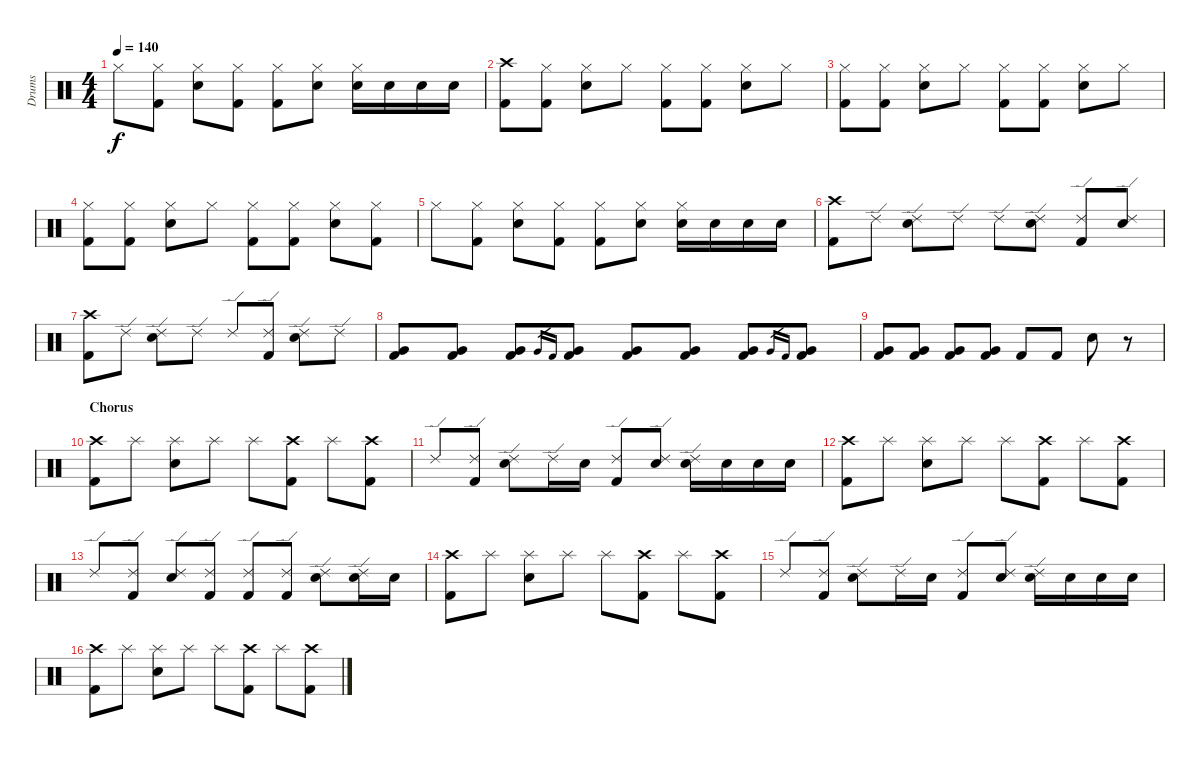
\track ("Drums" "Drums") {instrument percussion}
\staff {score}
\articulation defaults
\ts (4 4)
\tempo 140
\clef neutral
\ks c "Hi-Hat (closed)".8{dy f}
("Hi-Hat (closed)" "Kick (hit) 2").8 ("Hi-Hat (closed)" "Electric Snare (hit)").8 ("Hi-Hat (closed)" "Kick (hit) 2").8 ("Hi-Hat (closed)" "Kick (hit) 2").8 ("Hi-Hat (closed)" "Electric Snare (hit)").8 ("Hi-Hat (closed)" "Electric Snare (hit)").16 "Electric Snare (hit)".16 "Electric Snare (hit)".16 "Electric Snare (hit)".16 |
("Crash high (hit)" "Kick (hit) 2").8 ("Hi-Hat (closed)" "Kick (hit) 2").8 ("Hi-Hat (closed)" "Electric Snare (hit)").8 "Hi-Hat (closed)".8 ("Hi-Hat (closed)" "Kick (hit) 2").8 ("Hi-Hat (closed)" "Kick (hit) 2").8 ("Hi-Hat (closed)" "Electric Snare (hit)").8 "Hi-Hat (closed)".8 |
("Hi-Hat (closed)" "Kick (hit) 2").8 ("Hi-Hat (closed)" "Kick (hit) 2").8 ("Hi-Hat (closed)" "Electric Snare (hit)").8 "Hi-Hat (closed)".8 ("Hi-Hat (closed)" "Kick (hit) 2").8 ("Hi-Hat (closed)" "Kick (hit) 2").8 ("Hi-Hat (closed)" "Electric Snare (hit)").8 "Hi-Hat (closed)".8 |
("Hi-Hat (closed)" "Kick (hit) 2").8 ("Hi-Hat (closed)" "Kick (hit) 2").8 ("Hi-Hat (closed)" "Electric Snare (hit)").8 "Hi-Hat (closed)".8 ("Hi-Hat (closed)" "Kick (hit) 2").8 ("Hi-Hat (closed)" "Kick (hit) 2").8 ("Hi-Hat (closed)" "Electric Snare (hit)").8 ("Hi-Hat (closed)" "Kick (hit) 2").8 |
"Hi-Hat (closed)".8 ("Hi-Hat (closed)" "Kick (hit) 2").8 ("Hi-Hat (closed)" "Electric Snare (hit)").8 ("Hi-Hat (closed)" "Kick (hit) 2").8 ("Hi-Hat (closed)" "Kick (hit) 2").8 ("Hi-Hat (closed)" "Electric Snare (hit)").8 ("Hi-Hat (closed)" "Electric Snare (hit)").16 "Electric Snare (hit)".16 "Electric Snare (hit)".16 "Electric Snare (hit)".16 |
("Crash high (hit)" "Kick (hit) 2").8 "Ride (edge) 2".8 ("Ride (edge) 2" "Electric Snare (hit)").8 "Ride (edge) 2".8 "Ride (edge) 2".8 ("Ride (edge) 2" "Electric Snare (hit)").8 ("Ride (edge) 2" "Kick (hit) 2").8 ("Ride (edge) 2" "Electric Snare (hit)").8 |
("Crash high (hit)" "Kick (hit) 2").8 "Ride (edge) 2".8 ("Ride (edge) 2" "Electric Snare (hit)").8 "Ride (edge) 2".8 "Ride (edge) 2".8 ("Ride (edge) 2" "Kick (hit) 2").8 ("Ride (edge) 2" "Electric Snare (hit)").8 "Ride (edge) 2".8 |
("Very Low Tom (hit)" "Kick (hit) 2").8 ("Very Low Tom (hit)" "Kick (hit) 2").8 ("Very Low Tom (hit)" "Kick (hit) 2").8 "Very Low Tom (hit)".16{gr} "Kick (hit) 2".16{gr} ("Very Low Tom (hit)" "Kick (hit) 2").8 ("Very Low Tom (hit)" "Kick (hit) 2").8 ("Very Low Tom (hit)" "Kick (hit) 2").8 ("Very Low Tom (hit)" "Kick (hit) 2").8 "Very Low Tom (hit)".16{gr} "Kick (hit) 2".16{gr} ("Very Low Tom (hit)" "Kick (hit) 2").8 |
("Very Low Tom (hit)" "Kick (hit) 2").8 ("Very Low Tom (hit)" "Kick (hit) 2").8 ("Very Low Tom (hit)" "Kick (hit) 2").8 ("Very Low Tom (hit)" "Kick (hit) 2").8 "Kick (hit) 2".8 "Kick (hit) 2".8 "Electric Snare (hit)".8 r.8 |
\section ("" "Chorus")
("Crash high (hit)" "Kick (hit) 2").8 "Splash (hit)".8 ("Splash (hit)" "Electric Snare (hit)").8 "Splash (hit)".8 "Splash (hit)".8 ("Crash high (hit)" "Kick (hit) 2").8 "Splash (hit)".8 ("Crash high (hit)" "Kick (hit) 2").8 |
"Ride (edge) 2".8 ("Ride (edge) 2" "Kick (hit) 2").8 ("Ride (edge) 2" "Electric Snare (hit)").8 "Ride (edge) 2".16 "Electric Snare (hit)".16 ("Ride (edge) 2" "Kick (hit) 2").8 ("Ride (edge) 2" "Electric Snare (hit)").8 ("Ride (edge) 2" "Electric Snare (hit)").16 "Electric Snare (hit)".16 "Electric Snare (hit)".16 "Electric Snare (hit)".16 |
("Crash high (hit)" "Kick (hit) 2").8 "Splash (hit)".8 ("Splash (hit)" "Electric Snare (hit)").8 "Splash (hit)".8 "Splash (hit)".8 ("Crash high (hit)" "Kick (hit) 2").8 "Splash (hit)".8 ("Crash high (hit)" "Kick (hit) 2").8 |
"Ride (edge) 2".8 ("Ride (edge) 2" "Kick (hit) 2").8 ("Ride (edge) 2" "Electric Snare (hit)").8 ("Ride (edge) 2" "Kick (hit) 2").8 ("Ride (edge) 2" "Kick (hit) 2").8 ("Ride (edge) 2" "Kick (hit) 2").8 ("Ride (edge) 2" "Electric Snare (hit)").8 ("Ride (edge) 2" "Electric Snare (hit)").16 "Electric Snare (hit)".16 |
("Crash high (hit)" "Kick (hit) 2").8 "Splash (hit)".8 ("Splash (hit)" "Electric Snare (hit)").8 "Splash (hit)".8 "Splash (hit)".8 ("Crash high (hit)" "Kick (hit) 2").8 "Splash (hit)".8 ("Crash high (hit)" "Kick (hit) 2").8 |
"Ride (edge) 2".8 ("Ride (edge) 2" "Kick (hit) 2").8 ("Ride (edge) 2" "Electric Snare (hit)").8 "Ride (edge) 2".16 "Electric Snare (hit)".16 ("Ride (edge) 2" "Kick (hit) 2").8 ("Ride (edge) 2" "Electric Snare (hit)").8 ("Ride (edge) 2" "Electric Snare (hit)").16 "Electric Snare (hit)".16 "Electric Snare (hit)".16 "Electric Snare (hit)".16 |
("Crash high (hit)" "Kick (hit) 2").8 "Splash (hit)".8 ("Splash (hit)" "Electric Snare (hit)").8 "Splash (hit)".8 "Splash (hit)".8 ("Crash high (hit)" "Kick (hit) 2").8 "Splash (hit)".8 ("Crash high (hit)" "Kick (hit) 2").8
